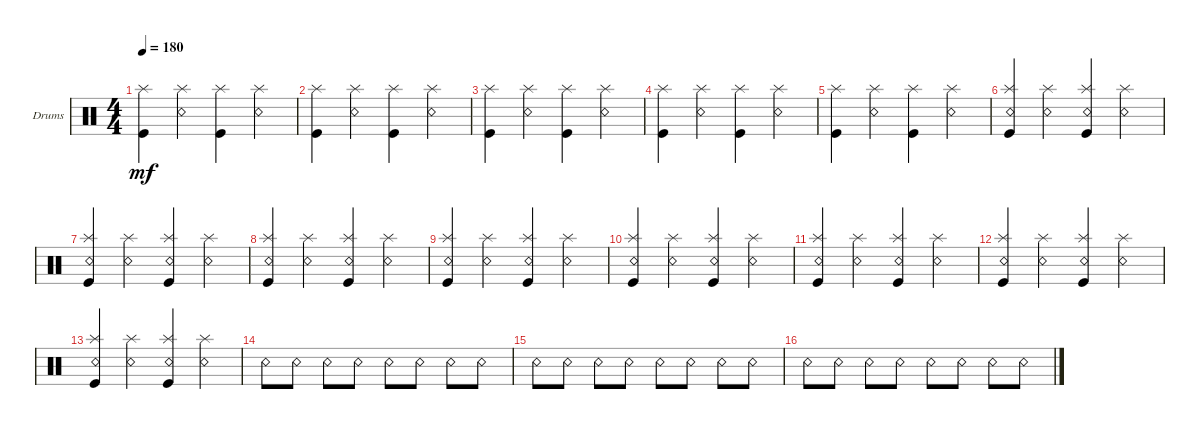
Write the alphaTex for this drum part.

\defaultSystemsLayout 4
\bracketExtendMode groupsimilarinstruments
\firstSystemTrackNameOrientation horizontal
\otherSystemsTrackNameOrientation horizontal
\track ("Drumkit" "Drums") {instrument percussion}
\staff {score}
\articulation defaults
\ts (4 4)
\tempo 180
\clef neutral
\scale
0.333333
\ks c
("Kick (hit)" "Splash (hit)").4{dy mf} ("Snare (rim shot)" "Splash (hit)").4 ("Kick (hit)" "Splash (hit)").4 ("Snare (rim shot)" "Splash (hit)").4 |
\scale
0.333333 ("Kick (hit)" "Splash (hit)").4 ("Snare (rim shot)" "Splash (hit)").4 ("Kick (hit)" "Splash (hit)").4 ("Snare (rim shot)" "Splash (hit)").4 |
\scale
0.333333 ("Kick (hit)" "Splash (hit)").4 ("Snare (rim shot)" "Splash (hit)").4 ("Kick (hit)" "Splash (hit)").4 ("Snare (rim shot)" "Splash (hit)").4 |
\scale
0.333333 ("Kick (hit)" "Splash (hit)").4 ("Snare (rim shot)" "Splash (hit)").4 ("Kick (hit)" "Splash (hit)").4 ("Snare (rim shot)" "Splash (hit)").4 |
\scale
0.333333 ("Kick (hit)" "Splash (hit)").4 ("Snare (rim shot)" "Splash (hit)").4 ("Kick (hit)" "Splash (hit)").4 ("Snare (rim shot)" "Splash (hit)").4 |
\scale
0.333333 ("Kick (hit)" "Splash (hit)" "Snare (rim shot)").4 ("Snare (rim shot)" "Splash (hit)").4 ("Kick (hit)" "Splash (hit)" "Snare (rim shot)").4 ("Snare (rim shot)" "Splash (hit)").4 |
\scale
0.333333 ("Kick (hit)" "Splash (hit)" "Snare (rim shot)").4 ("Snare (rim shot)" "Splash (hit)").4 ("Kick (hit)" "Splash (hit)" "Snare (rim shot)").4 ("Snare (rim shot)" "Splash (hit)").4 |
\scale
0.333333 ("Kick (hit)" "Splash (hit)" "Snare (rim shot)").4 ("Snare (rim shot)" "Splash (hit)").4 ("Kick (hit)" "Splash (hit)" "Snare (rim shot)").4 ("Snare (rim shot)" "Splash (hit)").4 |
\scale
0.333333 ("Kick (hit)" "Splash (hit)" "Snare (rim shot)").4 ("Snare (rim shot)" "Splash (hit)").4 ("Kick (hit)" "Splash (hit)" "Snare (rim shot)").4 ("Snare (rim shot)" "Splash (hit)").4 |
\scale
0.333333 ("Kick (hit)" "Splash (hit)" "Snare (rim shot)").4 ("Snare (rim shot)" "Splash (hit)").4 ("Kick (hit)" "Splash (hit)" "Snare (rim shot)").4 ("Snare (rim shot)" "Splash (hit)").4 |
\scale
0.333333 ("Kick (hit)" "Splash (hit)" "Snare (rim shot)").4 ("Snare (rim shot)" "Splash (hit)").4 ("Kick (hit)" "Splash (hit)" "Snare (rim shot)").4 ("Snare (rim shot)" "Splash (hit)").4 |
\scale
0.333333 ("Kick (hit)" "Splash (hit)" "Snare (rim shot)").4 ("Snare (rim shot)" "Splash (hit)").4 ("Kick (hit)" "Splash (hit)" "Snare (rim shot)").4 ("Snare (rim shot)" "Splash (hit)").4 |
\scale
0.333333 ("Kick (hit)" "Splash (hit)" "Snare (rim shot)").4 ("Snare (rim shot)" "Splash (hit)").4 ("Kick (hit)" "Splash (hit)" "Snare (rim shot)").4 ("Snare (rim shot)" "Splash (hit)").4 |
\scale
0.333333 "Snare (rim shot)".8 "Snare (rim shot)".8 "Snare (rim shot)".8 "Snare (rim shot)".8 "Snare (rim shot)".8 "Snare (rim shot)".8 "Snare (rim shot)".8 "Snare (rim shot)".8 |
\scale
0.333333 "Snare (rim shot)".8 "Snare (rim shot)".8 "Snare (rim shot)".8 "Snare (rim shot)".8 "Snare (rim shot)".8 "Snare (rim shot)".8 "Snare (rim shot)".8 "Snare (rim shot)".8 |
\scale
0.333333 "Snare (rim shot)".8 "Snare (rim shot)".8 "Snare (rim shot)".8 "Snare (rim shot)".8 "Snare (rim shot)".8 "Snare (rim shot)".8 "Snare (rim shot)".8 "Snare (rim shot)".8
